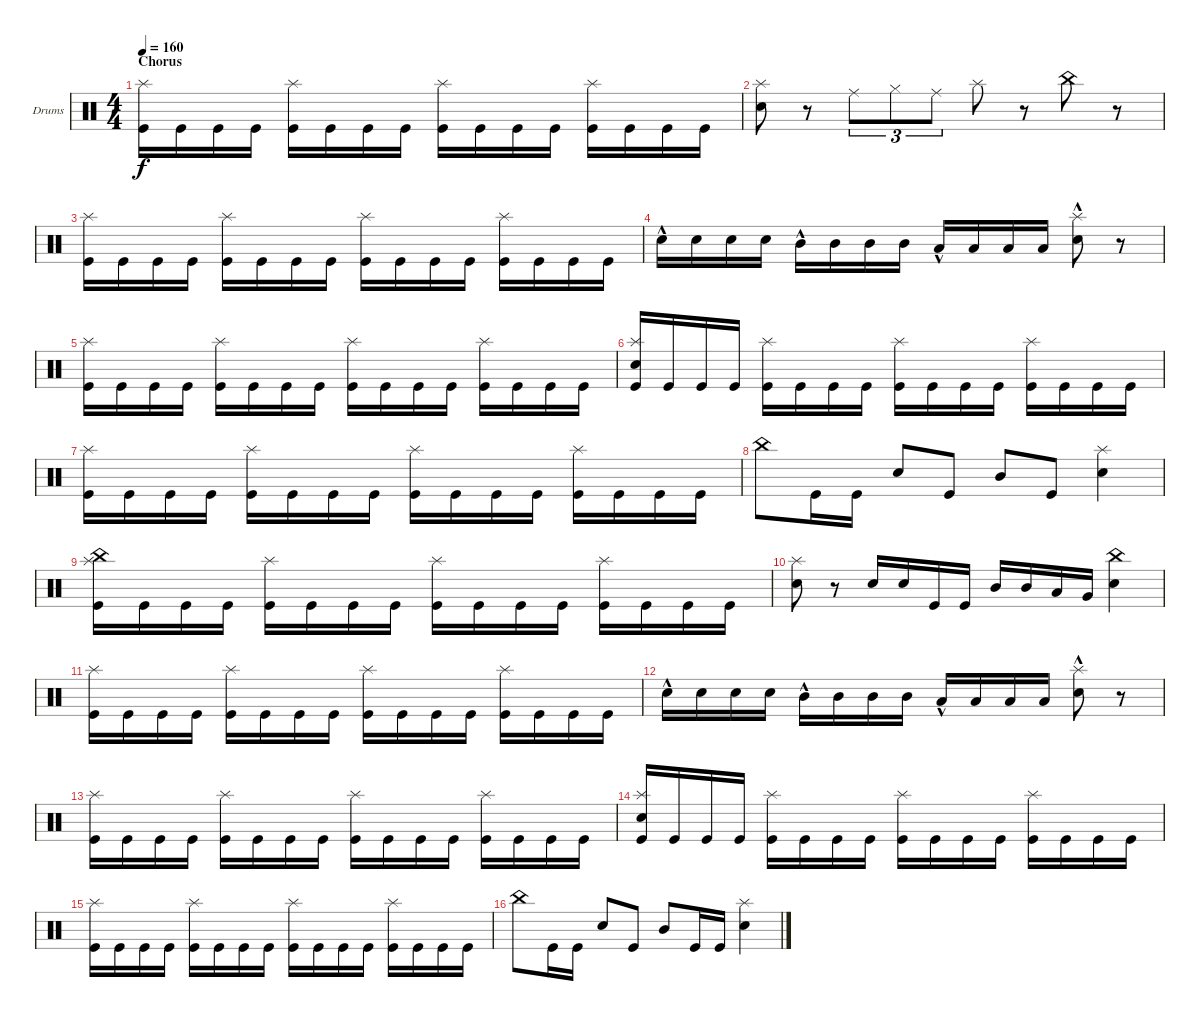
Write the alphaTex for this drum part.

\defaultSystemsLayout 4
\bracketExtendMode groupsimilarinstruments
\firstSystemTrackNameOrientation horizontal
\otherSystemsTrackNameOrientation horizontal
\track ("Drumkit" "Drums") {instrument percussion}
\staff {score}
\articulation defaults
\ts (4 4)
\section ("" "Chorus")
\tempo 160
\clef neutral
\ks c
("Kick (hit)" "Splash (hit)").16{dy f} "Kick (hit)".16 "Kick (hit)".16 "Kick (hit)".16 ("Kick (hit)" "Splash (hit)").16 "Kick (hit)".16 "Kick (hit)".16 "Kick (hit)".16 ("Kick (hit)" "Splash (hit)").16 "Kick (hit)".16 "Kick (hit)".16 "Kick (hit)".16 ("Kick (hit)" "Splash (hit)").16 "Kick (hit)".16 "Kick (hit)".16 "Kick (hit)".16 |
("Snare (hit) 2" "Splash (hit)").8 r.8 "Ride (middle)".8{tu (3 2)} "Hi-Hat (closed)".8{tu (3 2)} "Ride (middle)".8{tu (3 2)} "Splash (hit)".8 r.8 "China (hit)".8 r.8 |
("Kick (hit)" "Splash (hit)").16 "Kick (hit)".16 "Kick (hit)".16 "Kick (hit)".16 ("Kick (hit)" "Splash (hit)").16 "Kick (hit)".16 "Kick (hit)".16 "Kick (hit)".16 ("Kick (hit)" "Splash (hit)").16 "Kick (hit)".16 "Kick (hit)".16 "Kick (hit)".16 ("Kick (hit)" "Splash (hit)").16 "Kick (hit)".16 "Kick (hit)".16 "Kick (hit)".16 |
"Snare (hit) 2"{hac}.16 "Snare (hit) 2".16 "Snare (hit) 2".16 "Snare (hit) 2".16 "Mid Tom (hit)"{hac}.16 "Mid Tom (hit)".16 "Mid Tom (hit)".16 "Mid Tom (hit)".16 "Low Tom (hit)"{hac}.16 "Low Tom (hit)".16 "Low Tom (hit)".16 "Low Tom (hit)".16 ("Snare (hit) 2"{hac} "Splash (hit)").8 r.8 |
("Kick (hit)" "Splash (hit)").16 "Kick (hit)".16 "Kick (hit)".16 "Kick (hit)".16 ("Kick (hit)" "Splash (hit)").16 "Kick (hit)".16 "Kick (hit)".16 "Kick (hit)".16 ("Kick (hit)" "Splash (hit)").16 "Kick (hit)".16 "Kick (hit)".16 "Kick (hit)".16 ("Kick (hit)" "Splash (hit)").16 "Kick (hit)".16 "Kick (hit)".16 "Kick (hit)".16 |
("Kick (hit)" "Splash (hit)" "Snare (hit) 2").16 "Kick (hit)".16 "Kick (hit)".16 "Kick (hit)".16 ("Kick (hit)" "Splash (hit)").16 "Kick (hit)".16 "Kick (hit)".16 "Kick (hit)".16 ("Kick (hit)" "Splash (hit)").16 "Kick (hit)".16 "Kick (hit)".16 "Kick (hit)".16 ("Kick (hit)" "Splash (hit)").16 "Kick (hit)".16 "Kick (hit)".16 "Kick (hit)".16 |
("Kick (hit)" "Splash (hit)").16 "Kick (hit)".16 "Kick (hit)".16 "Kick (hit)".16 ("Kick (hit)" "Splash (hit)").16 "Kick (hit)".16 "Kick (hit)".16 "Kick (hit)".16 ("Kick (hit)" "Splash (hit)").16 "Kick (hit)".16 "Kick (hit)".16 "Kick (hit)".16 ("Kick (hit)" "Splash (hit)").16 "Kick (hit)".16 "Kick (hit)".16 "Kick (hit)".16 |
"China (hit)".8 "Kick (hit)".16 "Kick (hit)".16 "Snare (hit) 2".8 "Kick (hit)".8 "Mid Tom (hit)".8 "Kick (hit)".8 ("Snare (hit) 2" "Splash (hit)").4 |
("Kick (hit)" "Splash (hit)" "China (hit)").16 "Kick (hit)".16 "Kick (hit)".16 "Kick (hit)".16 ("Kick (hit)" "Splash (hit)").16 "Kick (hit)".16 "Kick (hit)".16 "Kick (hit)".16 ("Kick (hit)" "Splash (hit)").16 "Kick (hit)".16 "Kick (hit)".16 "Kick (hit)".16 ("Kick (hit)" "Splash (hit)").16 "Kick (hit)".16 "Kick (hit)".16 "Kick (hit)".16 |
("Snare (hit) 2" "Splash (hit)").8 r.8 "Snare (hit) 2".16 "Snare (hit) 2".16 "Kick (hit)".16 "Kick (hit)".16 "Mid Tom (hit)".16 "Mid Tom (hit)".16 "Low Tom (hit)".16 "Very Low Tom (hit)".16 ("Snare (hit) 2" "China (hit)").4 |
("Kick (hit)" "Splash (hit)").16 "Kick (hit)".16 "Kick (hit)".16 "Kick (hit)".16 ("Kick (hit)" "Splash (hit)").16 "Kick (hit)".16 "Kick (hit)".16 "Kick (hit)".16 ("Kick (hit)" "Splash (hit)").16 "Kick (hit)".16 "Kick (hit)".16 "Kick (hit)".16 ("Kick (hit)" "Splash (hit)").16 "Kick (hit)".16 "Kick (hit)".16 "Kick (hit)".16 |
"Snare (hit) 2"{hac}.16 "Snare (hit) 2".16 "Snare (hit) 2".16 "Snare (hit) 2".16 "Mid Tom (hit)"{hac}.16 "Mid Tom (hit)".16 "Mid Tom (hit)".16 "Mid Tom (hit)".16 "Low Tom (hit)"{hac}.16 "Low Tom (hit)".16 "Low Tom (hit)".16 "Low Tom (hit)".16 ("Snare (hit) 2"{hac} "Splash (hit)").8 r.8 |
("Kick (hit)" "Splash (hit)").16 "Kick (hit)".16 "Kick (hit)".16 "Kick (hit)".16 ("Kick (hit)" "Splash (hit)").16 "Kick (hit)".16 "Kick (hit)".16 "Kick (hit)".16 ("Kick (hit)" "Splash (hit)").16 "Kick (hit)".16 "Kick (hit)".16 "Kick (hit)".16 ("Kick (hit)" "Splash (hit)").16 "Kick (hit)".16 "Kick (hit)".16 "Kick (hit)".16 |
("Kick (hit)" "Splash (hit)" "Snare (hit) 2").16 "Kick (hit)".16 "Kick (hit)".16 "Kick (hit)".16 ("Kick (hit)" "Splash (hit)").16 "Kick (hit)".16 "Kick (hit)".16 "Kick (hit)".16 ("Kick (hit)" "Splash (hit)").16 "Kick (hit)".16 "Kick (hit)".16 "Kick (hit)".16 ("Kick (hit)" "Splash (hit)").16 "Kick (hit)".16 "Kick (hit)".16 "Kick (hit)".16 |
("Kick (hit)" "Splash (hit)").16 "Kick (hit)".16 "Kick (hit)".16 "Kick (hit)".16 ("Kick (hit)" "Splash (hit)").16 "Kick (hit)".16 "Kick (hit)".16 "Kick (hit)".16 ("Kick (hit)" "Splash (hit)").16 "Kick (hit)".16 "Kick (hit)".16 "Kick (hit)".16 ("Kick (hit)" "Splash (hit)").16 "Kick (hit)".16 "Kick (hit)".16 "Kick (hit)".16 |
"China (hit)".8 "Kick (hit)".16 "Kick (hit)".16 "Snare (hit) 2".8 "Kick (hit)".8 "Mid Tom (hit)".8 "Kick (hit)".16 "Kick (hit)".16 ("Snare (hit) 2" "Splash (hit)").4
